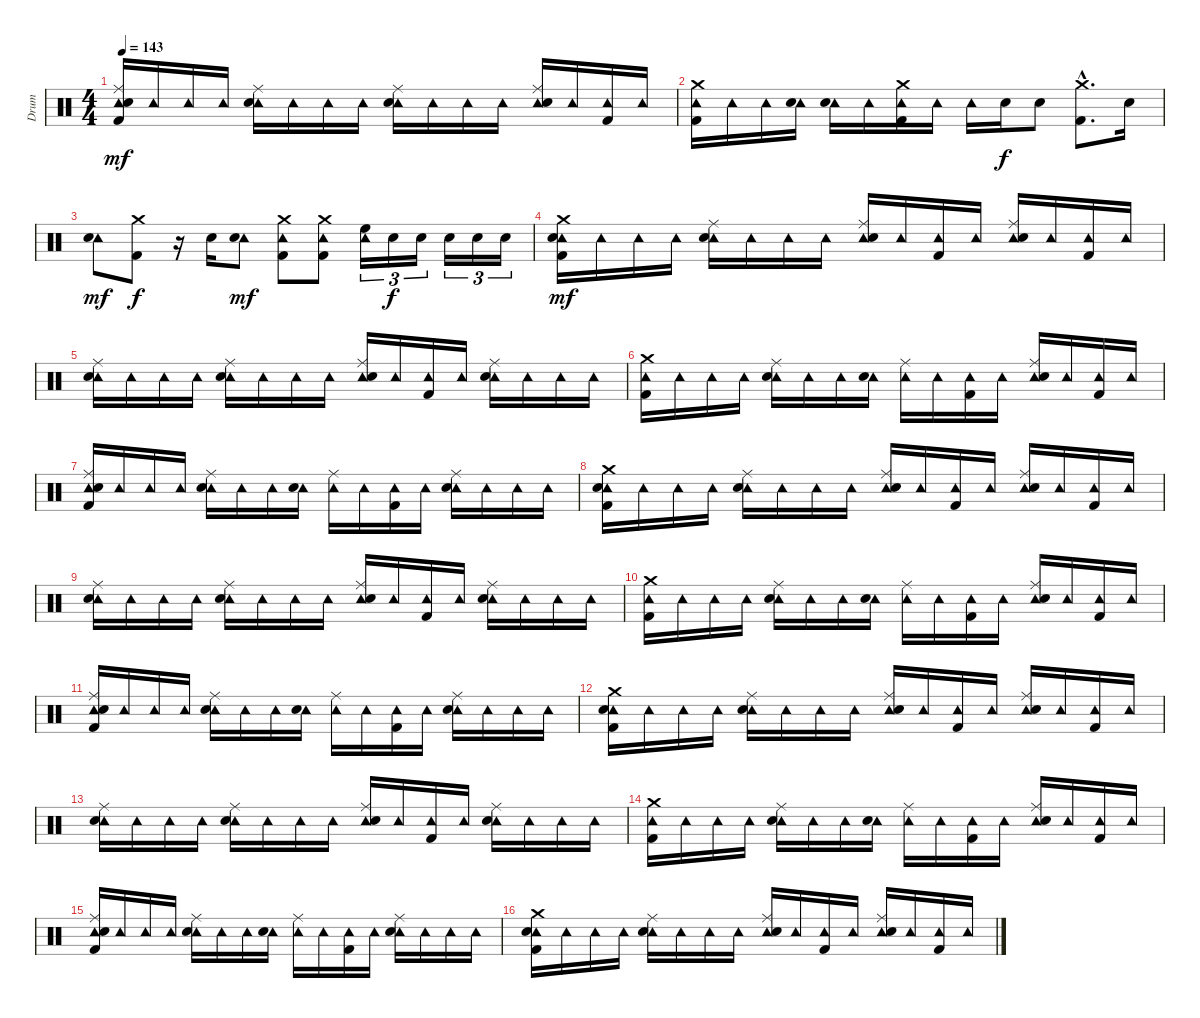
\track ("Drum" "Drum") {instrument percussion}
\staff {score}
\articulation defaults
\ts (4 4)
\tempo 143
\clef neutral
\ks c
("Tambourine (hit)" "Ride (middle)" "Snare (hit) 2" "Kick (hit) 2").16{dy mf} "Tambourine (hit)".16 "Tambourine (hit)".16 "Tambourine (hit)".16 ("Tambourine (hit)" "Ride (middle)" "Snare (hit) 2").16 "Tambourine (hit)".16 "Tambourine (hit)".16 "Tambourine (hit)".16 ("Tambourine (hit)" "Ride (middle)" "Snare (hit) 2").16 "Tambourine (hit)".16 "Tambourine (hit)".16 "Tambourine (hit)".16 ("Tambourine (hit)" "Ride (middle)" "Snare (hit) 2").16 "Tambourine (hit)".16 ("Tambourine (hit)" "Kick (hit) 2").16 "Tambourine (hit)".16 |
("Tambourine (hit)" "Crash medium (hit)" "Kick (hit) 2").16 "Tambourine (hit)".16 "Tambourine (hit)".16 ("Tambourine (hit)" "Snare (hit) 2").16 ("Tambourine (hit)" "Snare (hit) 2").16 "Tambourine (hit)".16 ("Tambourine (hit)" "Crash medium (hit)" "Kick (hit) 2").16 "Tambourine (hit)".16 "Tambourine (hit)".16 "Snare (hit) 2".16{dy f} "Snare (hit) 2".8 ("Crash medium (hit)"{hac} "Kick (hit) 2"{hac}).8{d} "Snare (hit) 2".16 |
("Tambourine (hit)" "Snare (hit) 2").8{dy mf} ("Crash medium (hit)" "Kick (hit) 2").8{dy f} r.16 "Snare (hit) 2".16 ("Tambourine (hit)" "Snare (hit) 2").8{dy mf} ("Tambourine (hit)" "Crash medium (hit)" "Kick (hit) 2").8 ("Tambourine (hit)" "Crash medium (hit)" "Kick (hit) 2").8 ("Tambourine (hit)" "High Floor Tom (hit)").16{tu (3 2)} "Snare (hit) 2".16{tu (3 2) dy f} "Snare (hit) 2".16{tu (3 2)} "Snare (hit) 2".16{tu (3 2)} "Snare (hit) 2".16{tu (3 2)} "Snare (hit) 2".16{tu (3 2)} |
("Tambourine (hit)" "Crash medium (hit)" "Snare (hit) 2" "Kick (hit) 2").16{dy mf} "Tambourine (hit)".16 "Tambourine (hit)".16 "Tambourine (hit)".16 ("Tambourine (hit)" "Ride (middle)" "Snare (hit) 2").16 "Tambourine (hit)".16 "Tambourine (hit)".16 "Tambourine (hit)".16 ("Tambourine (hit)" "Ride (middle)" "Snare (hit) 2").16 "Tambourine (hit)".16 ("Tambourine (hit)" "Kick (hit) 2").16 "Tambourine (hit)".16 ("Tambourine (hit)" "Ride (middle)" "Snare (hit) 2").16 "Tambourine (hit)".16 ("Tambourine (hit)" "Kick (hit) 2").16 "Tambourine (hit)".16 |
("Tambourine (hit)" "Ride (middle)" "Snare (hit) 2").16 "Tambourine (hit)".16 "Tambourine (hit)".16 "Tambourine (hit)".16 ("Tambourine (hit)" "Ride (middle)" "Snare (hit) 2").16 "Tambourine (hit)".16 "Tambourine (hit)".16 "Tambourine (hit)".16 ("Tambourine (hit)" "Ride (middle)" "Snare (hit) 2").16 "Tambourine (hit)".16 ("Tambourine (hit)" "Kick (hit) 2").16 "Tambourine (hit)".16 ("Tambourine (hit)" "Ride (middle)" "Snare (hit) 2").16 "Tambourine (hit)".16 "Tambourine (hit)".16 "Tambourine (hit)".16 |
("Tambourine (hit)" "Crash medium (hit)" "Kick (hit) 2").16 "Tambourine (hit)".16 "Tambourine (hit)".16 "Tambourine (hit)".16 ("Tambourine (hit)" "Ride (middle)" "Snare (hit) 2").16 "Tambourine (hit)".16 "Tambourine (hit)".16 ("Tambourine (hit)" "Snare (hit) 2").16 ("Tambourine (hit)" "Ride (middle)").16 "Tambourine (hit)".16 ("Tambourine (hit)" "Kick (hit) 2").16 "Tambourine (hit)".16 ("Tambourine (hit)" "Ride (middle)" "Snare (hit) 2").16 "Tambourine (hit)".16 ("Tambourine (hit)" "Kick (hit) 2").16 "Tambourine (hit)".16 |
("Tambourine (hit)" "Ride (middle)" "Snare (hit) 2" "Kick (hit) 2").16 "Tambourine (hit)".16 "Tambourine (hit)".16 "Tambourine (hit)".16 ("Tambourine (hit)" "Ride (middle)" "Snare (hit) 2").16 "Tambourine (hit)".16 "Tambourine (hit)".16 ("Tambourine (hit)" "Snare (hit) 2").16 ("Tambourine (hit)" "Ride (middle)").16 "Tambourine (hit)".16 ("Tambourine (hit)" "Kick (hit) 2").16 "Tambourine (hit)".16 ("Tambourine (hit)" "Ride (middle)" "Snare (hit) 2").16 "Tambourine (hit)".16 "Tambourine (hit)".16 "Tambourine (hit)".16 |
("Tambourine (hit)" "Crash medium (hit)" "Snare (hit) 2" "Kick (hit) 2").16 "Tambourine (hit)".16 "Tambourine (hit)".16 "Tambourine (hit)".16 ("Tambourine (hit)" "Ride (middle)" "Snare (hit) 2").16 "Tambourine (hit)".16 "Tambourine (hit)".16 "Tambourine (hit)".16 ("Tambourine (hit)" "Ride (middle)" "Snare (hit) 2").16 "Tambourine (hit)".16 ("Tambourine (hit)" "Kick (hit) 2").16 "Tambourine (hit)".16 ("Tambourine (hit)" "Ride (middle)" "Snare (hit) 2").16 "Tambourine (hit)".16 ("Tambourine (hit)" "Kick (hit) 2").16 "Tambourine (hit)".16 |
("Tambourine (hit)" "Ride (middle)" "Snare (hit) 2").16 "Tambourine (hit)".16 "Tambourine (hit)".16 "Tambourine (hit)".16 ("Tambourine (hit)" "Ride (middle)" "Snare (hit) 2").16 "Tambourine (hit)".16 "Tambourine (hit)".16 "Tambourine (hit)".16 ("Tambourine (hit)" "Ride (middle)" "Snare (hit) 2").16 "Tambourine (hit)".16 ("Tambourine (hit)" "Kick (hit) 2").16 "Tambourine (hit)".16 ("Tambourine (hit)" "Ride (middle)" "Snare (hit) 2").16 "Tambourine (hit)".16 "Tambourine (hit)".16 "Tambourine (hit)".16 |
("Tambourine (hit)" "Crash medium (hit)" "Kick (hit) 2").16 "Tambourine (hit)".16 "Tambourine (hit)".16 "Tambourine (hit)".16 ("Tambourine (hit)" "Ride (middle)" "Snare (hit) 2").16 "Tambourine (hit)".16 "Tambourine (hit)".16 ("Tambourine (hit)" "Snare (hit) 2").16 ("Tambourine (hit)" "Ride (middle)").16 "Tambourine (hit)".16 ("Tambourine (hit)" "Kick (hit) 2").16 "Tambourine (hit)".16 ("Tambourine (hit)" "Ride (middle)" "Snare (hit) 2").16 "Tambourine (hit)".16 ("Tambourine (hit)" "Kick (hit) 2").16 "Tambourine (hit)".16 |
("Tambourine (hit)" "Ride (middle)" "Snare (hit) 2" "Kick (hit) 2").16 "Tambourine (hit)".16 "Tambourine (hit)".16 "Tambourine (hit)".16 ("Tambourine (hit)" "Ride (middle)" "Snare (hit) 2").16 "Tambourine (hit)".16 "Tambourine (hit)".16 ("Tambourine (hit)" "Snare (hit) 2").16 ("Tambourine (hit)" "Ride (middle)").16 "Tambourine (hit)".16 ("Tambourine (hit)" "Kick (hit) 2").16 "Tambourine (hit)".16 ("Tambourine (hit)" "Ride (middle)" "Snare (hit) 2").16 "Tambourine (hit)".16 "Tambourine (hit)".16 "Tambourine (hit)".16 |
("Tambourine (hit)" "Crash medium (hit)" "Snare (hit) 2" "Kick (hit) 2").16 "Tambourine (hit)".16 "Tambourine (hit)".16 "Tambourine (hit)".16 ("Tambourine (hit)" "Ride (middle)" "Snare (hit) 2").16 "Tambourine (hit)".16 "Tambourine (hit)".16 "Tambourine (hit)".16 ("Tambourine (hit)" "Ride (middle)" "Snare (hit) 2").16 "Tambourine (hit)".16 ("Tambourine (hit)" "Kick (hit) 2").16 "Tambourine (hit)".16 ("Tambourine (hit)" "Ride (middle)" "Snare (hit) 2").16 "Tambourine (hit)".16 ("Tambourine (hit)" "Kick (hit) 2").16 "Tambourine (hit)".16 |
("Tambourine (hit)" "Ride (middle)" "Snare (hit) 2").16 "Tambourine (hit)".16 "Tambourine (hit)".16 "Tambourine (hit)".16 ("Tambourine (hit)" "Ride (middle)" "Snare (hit) 2").16 "Tambourine (hit)".16 "Tambourine (hit)".16 "Tambourine (hit)".16 ("Tambourine (hit)" "Ride (middle)" "Snare (hit) 2").16 "Tambourine (hit)".16 ("Tambourine (hit)" "Kick (hit) 2").16 "Tambourine (hit)".16 ("Tambourine (hit)" "Ride (middle)" "Snare (hit) 2").16 "Tambourine (hit)".16 "Tambourine (hit)".16 "Tambourine (hit)".16 |
("Tambourine (hit)" "Crash medium (hit)" "Kick (hit) 2").16 "Tambourine (hit)".16 "Tambourine (hit)".16 "Tambourine (hit)".16 ("Tambourine (hit)" "Ride (middle)" "Snare (hit) 2").16 "Tambourine (hit)".16 "Tambourine (hit)".16 ("Tambourine (hit)" "Snare (hit) 2").16 ("Tambourine (hit)" "Ride (middle)").16 "Tambourine (hit)".16 ("Tambourine (hit)" "Kick (hit) 2").16 "Tambourine (hit)".16 ("Tambourine (hit)" "Ride (middle)" "Snare (hit) 2").16 "Tambourine (hit)".16 ("Tambourine (hit)" "Kick (hit) 2").16 "Tambourine (hit)".16 |
("Tambourine (hit)" "Ride (middle)" "Snare (hit) 2" "Kick (hit) 2").16 "Tambourine (hit)".16 "Tambourine (hit)".16 "Tambourine (hit)".16 ("Tambourine (hit)" "Ride (middle)" "Snare (hit) 2").16 "Tambourine (hit)".16 "Tambourine (hit)".16 ("Tambourine (hit)" "Snare (hit) 2").16 ("Tambourine (hit)" "Ride (middle)").16 "Tambourine (hit)".16 ("Tambourine (hit)" "Kick (hit) 2").16 "Tambourine (hit)".16 ("Tambourine (hit)" "Ride (middle)" "Snare (hit) 2").16 "Tambourine (hit)".16 "Tambourine (hit)".16 "Tambourine (hit)".16 |
("Tambourine (hit)" "Crash medium (hit)" "Snare (hit) 2" "Kick (hit) 2").16 "Tambourine (hit)".16 "Tambourine (hit)".16 "Tambourine (hit)".16 ("Tambourine (hit)" "Ride (middle)" "Snare (hit) 2").16 "Tambourine (hit)".16 "Tambourine (hit)".16 "Tambourine (hit)".16 ("Tambourine (hit)" "Ride (middle)" "Snare (hit) 2").16 "Tambourine (hit)".16 ("Tambourine (hit)" "Kick (hit) 2").16 "Tambourine (hit)".16 ("Tambourine (hit)" "Ride (middle)" "Snare (hit) 2").16 "Tambourine (hit)".16 ("Tambourine (hit)" "Kick (hit) 2").16 "Tambourine (hit)".16
